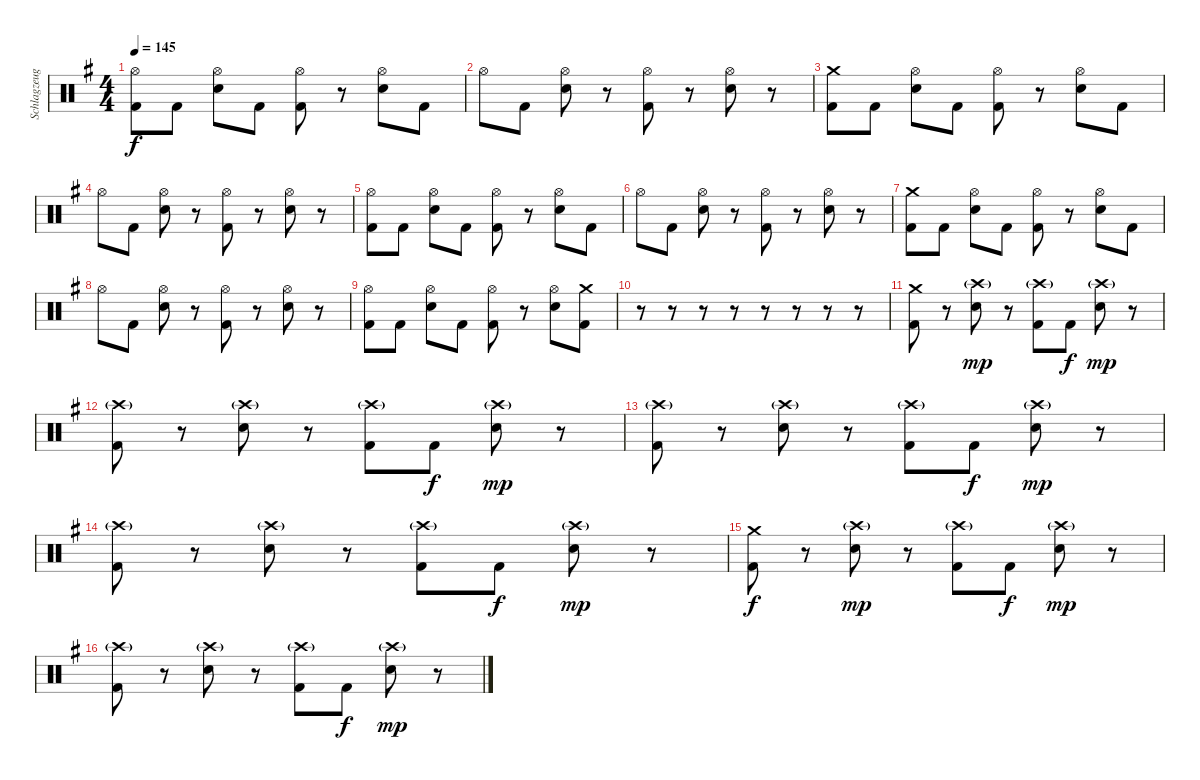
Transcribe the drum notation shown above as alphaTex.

\track ("Schlagzeug - Bela B. Felsenheimer" "Schlagzeug") {instrument percussion}
\staff {score}
\articulation defaults
\ts (4 4)
\tempo 145
\clef neutral
\ks g
("Hi-Hat (open)" "Kick (hit) 2").8{dy f} "Kick (hit) 2".8 ("Hi-Hat (open)" "Snare (hit) 2").8 "Kick (hit) 2".8 ("Hi-Hat (open)" "Kick (hit) 2").8 r.8 ("Hi-Hat (open)" "Snare (hit) 2").8 "Kick (hit) 2".8 |
"Hi-Hat (open)".8 "Kick (hit) 2".8 ("Hi-Hat (open)" "Snare (hit) 2").8 r.8 ("Hi-Hat (open)" "Kick (hit) 2").8 r.8 ("Hi-Hat (open)" "Snare (hit) 2").8 r.8 |
("Crash medium (hit)" "Kick (hit) 2").8 "Kick (hit) 2".8 ("Hi-Hat (open)" "Snare (hit) 2").8 "Kick (hit) 2".8 ("Hi-Hat (open)" "Kick (hit) 2").8 r.8 ("Hi-Hat (open)" "Snare (hit) 2").8 "Kick (hit) 2".8 |
"Hi-Hat (open)".8 "Kick (hit) 2".8 ("Hi-Hat (open)" "Snare (hit) 2").8 r.8 ("Hi-Hat (open)" "Kick (hit) 2").8 r.8 ("Hi-Hat (open)" "Snare (hit) 2").8 r.8 |
("Hi-Hat (open)" "Kick (hit) 2").8 "Kick (hit) 2".8 ("Hi-Hat (open)" "Snare (hit) 2").8 "Kick (hit) 2".8 ("Hi-Hat (open)" "Kick (hit) 2").8 r.8 ("Hi-Hat (open)" "Snare (hit) 2").8 "Kick (hit) 2".8 |
"Hi-Hat (open)".8 "Kick (hit) 2".8 ("Hi-Hat (open)" "Snare (hit) 2").8 r.8 ("Hi-Hat (open)" "Kick (hit) 2").8 r.8 ("Hi-Hat (open)" "Snare (hit) 2").8 r.8 |
("Crash medium (hit)" "Kick (hit) 2").8 "Kick (hit) 2".8 ("Hi-Hat (open)" "Snare (hit) 2").8 "Kick (hit) 2".8 ("Hi-Hat (open)" "Kick (hit) 2").8 r.8 ("Hi-Hat (open)" "Snare (hit) 2").8 "Kick (hit) 2".8 |
"Hi-Hat (open)".8 "Kick (hit) 2".8 ("Hi-Hat (open)" "Snare (hit) 2").8 r.8 ("Hi-Hat (open)" "Kick (hit) 2").8 r.8 ("Hi-Hat (open)" "Snare (hit) 2").8 r.8 |
("Hi-Hat (open)" "Kick (hit) 2").8 "Kick (hit) 2".8 ("Hi-Hat (open)" "Snare (hit) 2").8 "Kick (hit) 2".8 ("Hi-Hat (open)" "Kick (hit) 2").8 r.8 ("Hi-Hat (open)" "Snare (hit) 2").8 ("Crash medium (hit)" "Kick (hit) 2").8 |
r.8 r.8 r.8 r.8 r.8 r.8 r.8 r.8 |
("Crash medium (hit)" "Kick (hit) 2").8 r.8 ("Crash high (hit)"{g} "Snare (hit) 2").8{dy mp} r.8 ("Crash high (hit)"{g} "Kick (hit) 2").8 "Kick (hit) 2".8{dy f} ("Crash high (hit)"{g} "Snare (hit) 2").8{dy mp} r.8 |
("Crash high (hit)"{g} "Kick (hit) 2").8 r.8 ("Crash high (hit)"{g} "Snare (hit) 2").8 r.8 ("Crash high (hit)"{g} "Kick (hit) 2").8 "Kick (hit) 2".8{dy f} ("Crash high (hit)"{g} "Snare (hit) 2").8{dy mp} r.8 |
("Crash high (hit)"{g} "Kick (hit) 2").8 r.8 ("Crash high (hit)"{g} "Snare (hit) 2").8 r.8 ("Crash high (hit)"{g} "Kick (hit) 2").8 "Kick (hit) 2".8{dy f} ("Crash high (hit)"{g} "Snare (hit) 2").8{dy mp} r.8 |
("Crash high (hit)"{g} "Kick (hit) 2").8 r.8 ("Crash high (hit)"{g} "Snare (hit) 2").8 r.8 ("Crash high (hit)"{g} "Kick (hit) 2").8 "Kick (hit) 2".8{dy f} ("Crash high (hit)"{g} "Snare (hit) 2").8{dy mp} r.8 |
("Crash medium (hit)" "Kick (hit) 2").8{dy f} r.8 ("Crash high (hit)"{g} "Snare (hit) 2").8{dy mp} r.8 ("Crash high (hit)"{g} "Kick (hit) 2").8 "Kick (hit) 2".8{dy f} ("Crash high (hit)"{g} "Snare (hit) 2").8{dy mp} r.8 |
("Crash high (hit)"{g} "Kick (hit) 2").8 r.8 ("Crash high (hit)"{g} "Snare (hit) 2").8 r.8 ("Crash high (hit)"{g} "Kick (hit) 2").8 "Kick (hit) 2".8{dy f} ("Crash high (hit)"{g} "Snare (hit) 2").8{dy mp} r.8
